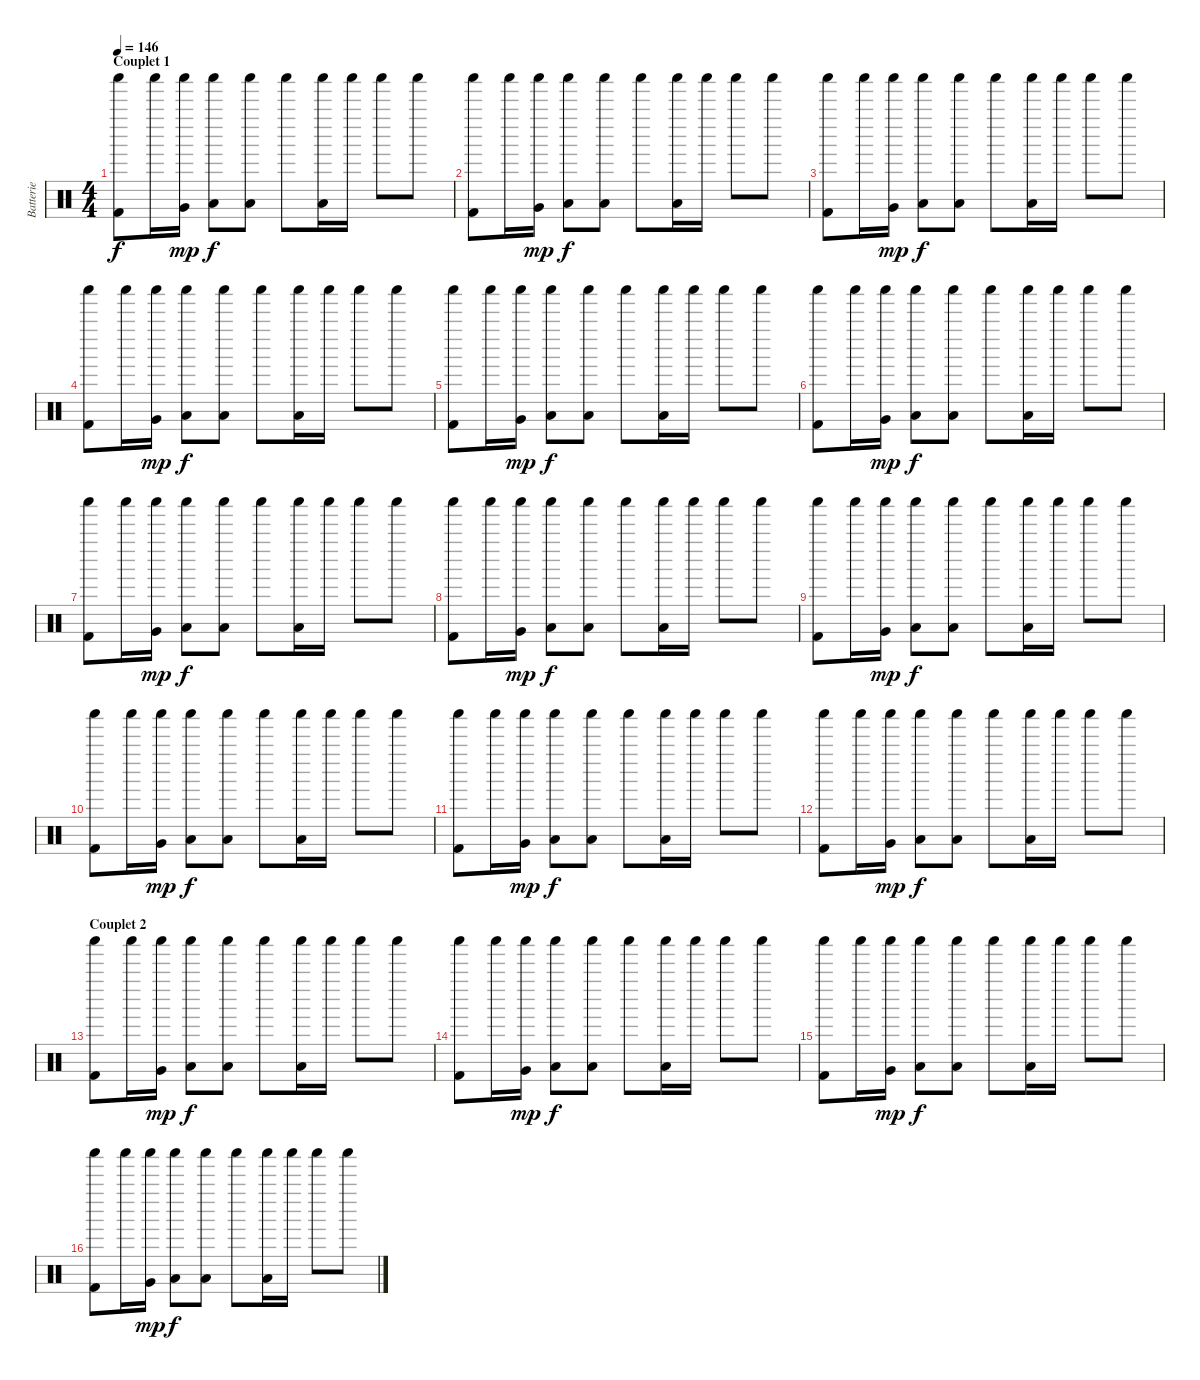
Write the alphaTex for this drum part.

\track ("Batterie" "Batterie") {instrument percussion}
\staff {score}
\articulation defaults
\ts (4 4)
\section ("" "Couplet 1")
\tempo 146
\clef neutral
\ks c
("Shaker (hit)" "Kick (hit) 2").8{dy f} "Shaker (hit)".16 ("Shaker (hit)" "Very Low Tom (hit)").16{dy mp} ("Shaker (hit)" "Low Tom (hit)").8{dy f} ("Shaker (hit)" "Low Tom (hit)").8 "Shaker (hit)".8 ("Shaker (hit)" "Low Tom (hit)").16 "Shaker (hit)".16 "Shaker (hit)".8 "Shaker (hit)".8 |
("Shaker (hit)" "Kick (hit) 2").8 "Shaker (hit)".16 ("Shaker (hit)" "Very Low Tom (hit)").16{dy mp} ("Shaker (hit)" "Low Tom (hit)").8{dy f} ("Shaker (hit)" "Low Tom (hit)").8 "Shaker (hit)".8 ("Shaker (hit)" "Low Tom (hit)").16 "Shaker (hit)".16 "Shaker (hit)".8 "Shaker (hit)".8 |
("Shaker (hit)" "Kick (hit) 2").8 "Shaker (hit)".16 ("Shaker (hit)" "Very Low Tom (hit)").16{dy mp} ("Shaker (hit)" "Low Tom (hit)").8{dy f} ("Shaker (hit)" "Low Tom (hit)").8 "Shaker (hit)".8 ("Shaker (hit)" "Low Tom (hit)").16 "Shaker (hit)".16 "Shaker (hit)".8 "Shaker (hit)".8 |
("Shaker (hit)" "Kick (hit) 2").8 "Shaker (hit)".16 ("Shaker (hit)" "Very Low Tom (hit)").16{dy mp} ("Shaker (hit)" "Low Tom (hit)").8{dy f} ("Shaker (hit)" "Low Tom (hit)").8 "Shaker (hit)".8 ("Shaker (hit)" "Low Tom (hit)").16 "Shaker (hit)".16 "Shaker (hit)".8 "Shaker (hit)".8 |
("Shaker (hit)" "Kick (hit) 2").8 "Shaker (hit)".16 ("Shaker (hit)" "Very Low Tom (hit)").16{dy mp} ("Shaker (hit)" "Low Tom (hit)").8{dy f} ("Shaker (hit)" "Low Tom (hit)").8 "Shaker (hit)".8 ("Shaker (hit)" "Low Tom (hit)").16 "Shaker (hit)".16 "Shaker (hit)".8 "Shaker (hit)".8 |
("Shaker (hit)" "Kick (hit) 2").8 "Shaker (hit)".16 ("Shaker (hit)" "Very Low Tom (hit)").16{dy mp} ("Shaker (hit)" "Low Tom (hit)").8{dy f} ("Shaker (hit)" "Low Tom (hit)").8 "Shaker (hit)".8 ("Shaker (hit)" "Low Tom (hit)").16 "Shaker (hit)".16 "Shaker (hit)".8 "Shaker (hit)".8 |
("Shaker (hit)" "Kick (hit) 2").8 "Shaker (hit)".16 ("Shaker (hit)" "Very Low Tom (hit)").16{dy mp} ("Shaker (hit)" "Low Tom (hit)").8{dy f} ("Shaker (hit)" "Low Tom (hit)").8 "Shaker (hit)".8 ("Shaker (hit)" "Low Tom (hit)").16 "Shaker (hit)".16 "Shaker (hit)".8 "Shaker (hit)".8 |
("Shaker (hit)" "Kick (hit) 2").8 "Shaker (hit)".16 ("Shaker (hit)" "Very Low Tom (hit)").16{dy mp} ("Shaker (hit)" "Low Tom (hit)").8{dy f} ("Shaker (hit)" "Low Tom (hit)").8 "Shaker (hit)".8 ("Shaker (hit)" "Low Tom (hit)").16 "Shaker (hit)".16 "Shaker (hit)".8 "Shaker (hit)".8 |
("Shaker (hit)" "Kick (hit) 2").8 "Shaker (hit)".16 ("Shaker (hit)" "Very Low Tom (hit)").16{dy mp} ("Shaker (hit)" "Low Tom (hit)").8{dy f} ("Shaker (hit)" "Low Tom (hit)").8 "Shaker (hit)".8 ("Shaker (hit)" "Low Tom (hit)").16 "Shaker (hit)".16 "Shaker (hit)".8 "Shaker (hit)".8 |
("Shaker (hit)" "Kick (hit) 2").8 "Shaker (hit)".16 ("Shaker (hit)" "Very Low Tom (hit)").16{dy mp} ("Shaker (hit)" "Low Tom (hit)").8{dy f} ("Shaker (hit)" "Low Tom (hit)").8 "Shaker (hit)".8 ("Shaker (hit)" "Low Tom (hit)").16 "Shaker (hit)".16 "Shaker (hit)".8 "Shaker (hit)".8 |
("Shaker (hit)" "Kick (hit) 2").8 "Shaker (hit)".16 ("Shaker (hit)" "Very Low Tom (hit)").16{dy mp} ("Shaker (hit)" "Low Tom (hit)").8{dy f} ("Shaker (hit)" "Low Tom (hit)").8 "Shaker (hit)".8 ("Shaker (hit)" "Low Tom (hit)").16 "Shaker (hit)".16 "Shaker (hit)".8 "Shaker (hit)".8 |
("Shaker (hit)" "Kick (hit) 2").8 "Shaker (hit)".16 ("Shaker (hit)" "Very Low Tom (hit)").16{dy mp} ("Shaker (hit)" "Low Tom (hit)").8{dy f} ("Shaker (hit)" "Low Tom (hit)").8 "Shaker (hit)".8 ("Shaker (hit)" "Low Tom (hit)").16 "Shaker (hit)".16 "Shaker (hit)".8 "Shaker (hit)".8 |
\section ("" "Couplet 2")
("Shaker (hit)" "Kick (hit) 2").8 "Shaker (hit)".16 ("Shaker (hit)" "Very Low Tom (hit)").16{dy mp} ("Shaker (hit)" "Low Tom (hit)").8{dy f} ("Shaker (hit)" "Low Tom (hit)").8 "Shaker (hit)".8 ("Shaker (hit)" "Low Tom (hit)").16 "Shaker (hit)".16 "Shaker (hit)".8 "Shaker (hit)".8 |
("Shaker (hit)" "Kick (hit) 2").8 "Shaker (hit)".16 ("Shaker (hit)" "Very Low Tom (hit)").16{dy mp} ("Shaker (hit)" "Low Tom (hit)").8{dy f} ("Shaker (hit)" "Low Tom (hit)").8 "Shaker (hit)".8 ("Shaker (hit)" "Low Tom (hit)").16 "Shaker (hit)".16 "Shaker (hit)".8 "Shaker (hit)".8 |
("Shaker (hit)" "Kick (hit) 2").8 "Shaker (hit)".16 ("Shaker (hit)" "Very Low Tom (hit)").16{dy mp} ("Shaker (hit)" "Low Tom (hit)").8{dy f} ("Shaker (hit)" "Low Tom (hit)").8 "Shaker (hit)".8 ("Shaker (hit)" "Low Tom (hit)").16 "Shaker (hit)".16 "Shaker (hit)".8 "Shaker (hit)".8 |
("Shaker (hit)" "Kick (hit) 2").8 "Shaker (hit)".16 ("Shaker (hit)" "Very Low Tom (hit)").16{dy mp} ("Shaker (hit)" "Low Tom (hit)").8{dy f} ("Shaker (hit)" "Low Tom (hit)").8 "Shaker (hit)".8 ("Shaker (hit)" "Low Tom (hit)").16 "Shaker (hit)".16 "Shaker (hit)".8 "Shaker (hit)".8
